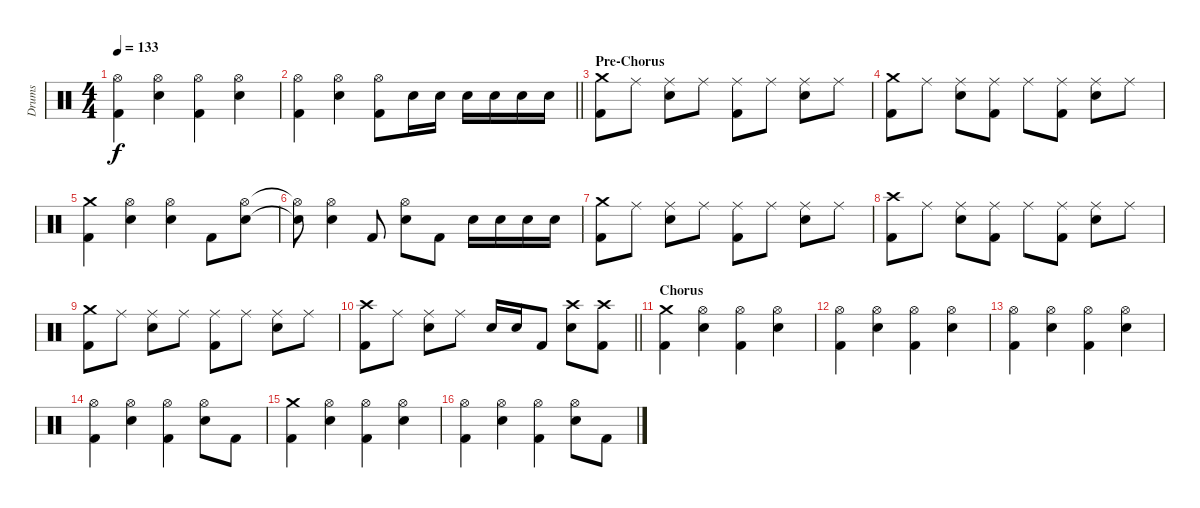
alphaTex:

\track ("Drums" "Drums") {instrument percussion}
\staff {score}
\articulation defaults
\ts (4 4)
\tempo 133
\clef neutral
\ks c
("Hi-Hat (open)" "Kick (hit) 2").4{dy f} ("Hi-Hat (open)" "Snare (hit) 2").4 ("Hi-Hat (open)" "Kick (hit) 2").4 ("Hi-Hat (open)" "Snare (hit) 2").4 |
\barLineRight lightlight
("Hi-Hat (open)" "Kick (hit) 2").4 ("Hi-Hat (open)" "Snare (hit) 2").4 ("Hi-Hat (open)" "Kick (hit) 2").8 "Snare (hit) 2".16 "Snare (hit) 2".16 "Snare (hit) 2".16 "Snare (hit) 2".16 "Snare (hit) 2".16 "Snare (hit) 2".16 |
\section ("" "Pre-Chorus")
("Crash medium (hit)" "Kick (hit) 2").8 "Ride (middle)".8 ("Ride (middle)" "Snare (hit) 2").8 "Ride (middle)".8 ("Ride (middle)" "Kick (hit) 2").8 "Ride (middle)".8 ("Ride (middle)" "Snare (hit) 2").8 "Ride (middle)".8 |
("Crash medium (hit)" "Kick (hit) 2").8 "Ride (middle)".8 ("Ride (middle)" "Snare (hit) 2").8 ("Ride (middle)" "Kick (hit) 2").8 "Ride (middle)".8 ("Ride (middle)" "Kick (hit) 2").8 ("Ride (middle)" "Snare (hit) 2").8 "Ride (middle)".8 |
("Crash medium (hit)" "Kick (hit) 2").4 ("Hi-Hat (open)" "Snare (hit) 2").4 ("Hi-Hat (open)" "Snare (hit) 2").4 "Kick (hit) 2".8 ("Hi-Hat (open)" "Snare (hit) 2").8 |
("Hi-Hat (open)"{t} "Snare (hit) 2"{t}).8 ("Hi-Hat (open)" "Snare (hit) 2").4 "Kick (hit) 2".8 ("Hi-Hat (open)" "Snare (hit) 2").8 "Kick (hit) 2".8 "Snare (hit) 2".16 "Snare (hit) 2".16 "Snare (hit) 2".16 "Snare (hit) 2".16 |
("Crash medium (hit)" "Kick (hit) 2").8 "Ride (middle)".8 ("Ride (middle)" "Snare (hit) 2").8 "Ride (middle)".8 ("Ride (middle)" "Kick (hit) 2").8 "Ride (middle)".8 ("Ride (middle)" "Snare (hit) 2").8 "Ride (middle)".8 |
("Crash high (hit)" "Kick (hit) 2").8 "Ride (middle)".8 ("Ride (middle)" "Snare (hit) 2").8 ("Ride (middle)" "Kick (hit) 2").8 "Ride (middle)".8 ("Ride (middle)" "Kick (hit) 2").8 ("Ride (middle)" "Snare (hit) 2").8 "Ride (middle)".8 |
("Crash medium (hit)" "Kick (hit) 2").8 "Ride (middle)".8 ("Ride (middle)" "Snare (hit) 2").8 "Ride (middle)".8 ("Ride (middle)" "Kick (hit) 2").8 "Ride (middle)".8 ("Ride (middle)" "Snare (hit) 2").8 "Ride (middle)".8 |
\barLineRight lightlight
("Crash high (hit)" "Kick (hit) 2").8 "Ride (middle)".8 ("Ride (middle)" "Snare (hit) 2").8 "Ride (middle)".8 "Snare (hit) 2".16 "Snare (hit) 2".16 "Kick (hit) 2".8 ("Crash high (hit)" "Snare (hit) 2").8 ("Crash high (hit)" "Kick (hit) 2").8 |
\section ("" "Chorus")
("Crash medium (hit)" "Kick (hit) 2").4 ("Hi-Hat (open)" "Snare (hit) 2").4 ("Hi-Hat (open)" "Kick (hit) 2").4 ("Hi-Hat (open)" "Snare (hit) 2").4 |
("Hi-Hat (open)" "Kick (hit) 2").4 ("Hi-Hat (open)" "Snare (hit) 2").4 ("Hi-Hat (open)" "Kick (hit) 2").4 ("Hi-Hat (open)" "Snare (hit) 2").4 |
("Hi-Hat (open)" "Kick (hit) 2").4 ("Hi-Hat (open)" "Snare (hit) 2").4 ("Hi-Hat (open)" "Kick (hit) 2").4 ("Hi-Hat (open)" "Snare (hit) 2").4 |
("Hi-Hat (open)" "Kick (hit) 2").4 ("Hi-Hat (open)" "Snare (hit) 2").4 ("Hi-Hat (open)" "Kick (hit) 2").4 ("Hi-Hat (open)" "Snare (hit) 2").8 "Kick (hit) 2".8 |
("Crash medium (hit)" "Kick (hit) 2").4 ("Hi-Hat (open)" "Snare (hit) 2").4 ("Hi-Hat (open)" "Kick (hit) 2").4 ("Hi-Hat (open)" "Snare (hit) 2").4 |
("Hi-Hat (open)" "Kick (hit) 2").4 ("Hi-Hat (open)" "Snare (hit) 2").4 ("Hi-Hat (open)" "Kick (hit) 2").4 ("Hi-Hat (open)" "Snare (hit) 2").8 "Kick (hit) 2".8
